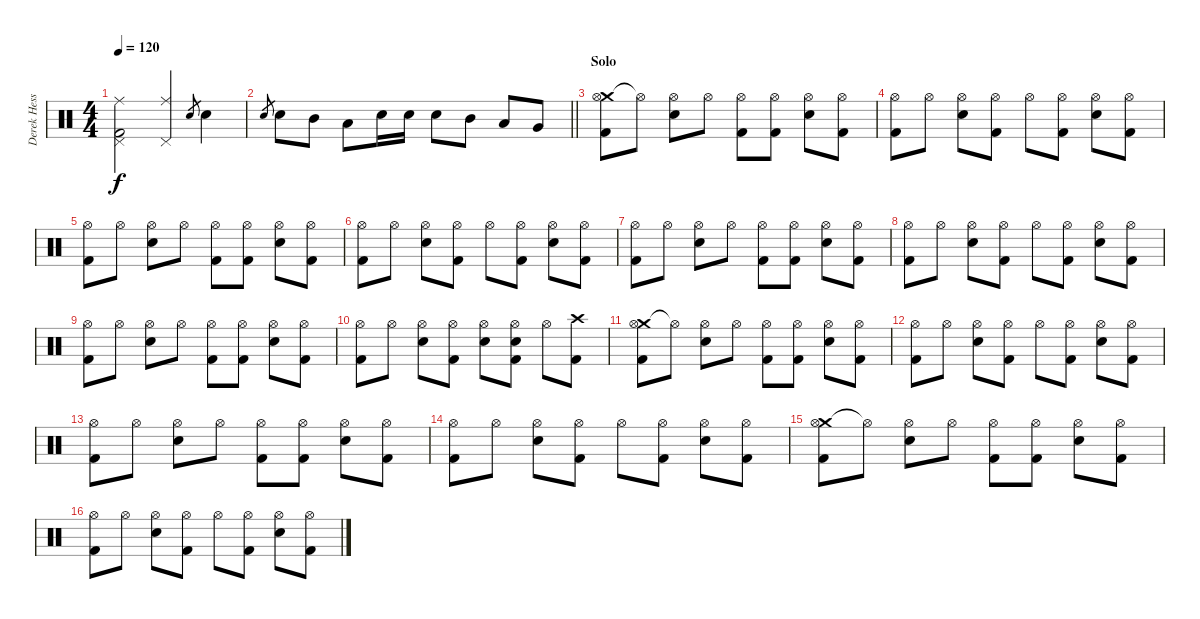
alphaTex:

\track ("Derek Hess (Drums and Percussion)" "Derek Hess") {instrument percussion}
\staff {score}
\articulation defaults
\ts (4 4)
\tempo 120
\clef neutral
\ks c
("Ride (middle)" "Pedal Hi-Hat (hit)" "Kick (hit) 2").2{dy f} ("Ride (middle)" "Pedal Hi-Hat (hit)").4 "Snare (hit) 2".8{gr} "Snare (hit) 2".4 |
\barLineRight lightlight "Snare (hit) 2".8{gr} "Snare (hit) 2".8 "Mid Tom (hit)".8 "Low Tom (hit)".8 "Snare (hit) 2".16 "Snare (hit) 2".16 "Snare (hit) 2".8 "Mid Tom (hit)".8 "Low Tom (hit)".8 "Very Low Tom (hit)".8
|
\section ("" "Solo")
("Crash medium (hit)" "Hi-Hat (open)" "Kick (hit) 2").8 "Hi-Hat (open)"{t}.8 ("Hi-Hat (open)" "Snare (hit) 2").8 "Hi-Hat (open)".8 ("Hi-Hat (open)" "Kick (hit) 2").8 ("Hi-Hat (open)" "Kick (hit) 2").8 ("Hi-Hat (open)" "Snare (hit) 2").8 ("Hi-Hat (open)" "Kick (hit) 2").8 |
("Hi-Hat (open)" "Kick (hit) 2").8 "Hi-Hat (open)".8 ("Hi-Hat (open)" "Snare (hit) 2").8 ("Hi-Hat (open)" "Kick (hit) 2").8 "Hi-Hat (open)".8 ("Hi-Hat (open)" "Kick (hit) 2").8 ("Hi-Hat (open)" "Snare (hit) 2").8 ("Hi-Hat (open)" "Kick (hit) 2").8 |
("Hi-Hat (open)" "Kick (hit) 2").8 "Hi-Hat (open)".8 ("Hi-Hat (open)" "Snare (hit) 2").8 "Hi-Hat (open)".8 ("Hi-Hat (open)" "Kick (hit) 2").8 ("Hi-Hat (open)" "Kick (hit) 2").8 ("Hi-Hat (open)" "Snare (hit) 2").8 ("Hi-Hat (open)" "Kick (hit) 2").8 |
("Hi-Hat (open)" "Kick (hit) 2").8 "Hi-Hat (open)".8 ("Hi-Hat (open)" "Snare (hit) 2").8 ("Hi-Hat (open)" "Kick (hit) 2").8 "Hi-Hat (open)".8 ("Hi-Hat (open)" "Kick (hit) 2").8 ("Hi-Hat (open)" "Snare (hit) 2").8 ("Hi-Hat (open)" "Kick (hit) 2").8 |
("Hi-Hat (open)" "Kick (hit) 2").8 "Hi-Hat (open)".8 ("Hi-Hat (open)" "Snare (hit) 2").8 "Hi-Hat (open)".8 ("Hi-Hat (open)" "Kick (hit) 2").8 ("Hi-Hat (open)" "Kick (hit) 2").8 ("Hi-Hat (open)" "Snare (hit) 2").8 ("Hi-Hat (open)" "Kick (hit) 2").8 |
("Hi-Hat (open)" "Kick (hit) 2").8 "Hi-Hat (open)".8 ("Hi-Hat (open)" "Snare (hit) 2").8 ("Hi-Hat (open)" "Kick (hit) 2").8 "Hi-Hat (open)".8 ("Hi-Hat (open)" "Kick (hit) 2").8 ("Hi-Hat (open)" "Snare (hit) 2").8 ("Hi-Hat (open)" "Kick (hit) 2").8 |
("Hi-Hat (open)" "Kick (hit) 2").8 "Hi-Hat (open)".8 ("Hi-Hat (open)" "Snare (hit) 2").8 "Hi-Hat (open)".8 ("Hi-Hat (open)" "Kick (hit) 2").8 ("Hi-Hat (open)" "Kick (hit) 2").8 ("Hi-Hat (open)" "Snare (hit) 2").8 ("Hi-Hat (open)" "Kick (hit) 2").8 |
("Hi-Hat (open)" "Kick (hit) 2").8 "Hi-Hat (open)".8 ("Hi-Hat (open)" "Snare (hit) 2").8 ("Hi-Hat (open)" "Kick (hit) 2").8 ("Hi-Hat (open)" "Snare (hit) 2").8 ("Hi-Hat (open)" "Snare (hit) 2" "Kick (hit) 2").8 "Hi-Hat (open)".8 ("Crash high (hit)" "Kick (hit) 2").8 |
("Crash medium (hit)" "Hi-Hat (open)" "Kick (hit) 2").8 "Hi-Hat (open)"{t}.8 ("Hi-Hat (open)" "Snare (hit) 2").8 "Hi-Hat (open)".8 ("Hi-Hat (open)" "Kick (hit) 2").8 ("Hi-Hat (open)" "Kick (hit) 2").8 ("Hi-Hat (open)" "Snare (hit) 2").8 ("Hi-Hat (open)" "Kick (hit) 2").8 |
("Hi-Hat (open)" "Kick (hit) 2").8 "Hi-Hat (open)".8 ("Hi-Hat (open)" "Snare (hit) 2").8 ("Hi-Hat (open)" "Kick (hit) 2").8 "Hi-Hat (open)".8 ("Hi-Hat (open)" "Kick (hit) 2").8 ("Hi-Hat (open)" "Snare (hit) 2").8 ("Hi-Hat (open)" "Kick (hit) 2").8 |
("Hi-Hat (open)" "Kick (hit) 2").8 "Hi-Hat (open)".8 ("Hi-Hat (open)" "Snare (hit) 2").8 "Hi-Hat (open)".8 ("Hi-Hat (open)" "Kick (hit) 2").8 ("Hi-Hat (open)" "Kick (hit) 2").8 ("Hi-Hat (open)" "Snare (hit) 2").8 ("Hi-Hat (open)" "Kick (hit) 2").8 |
("Hi-Hat (open)" "Kick (hit) 2").8 "Hi-Hat (open)".8 ("Hi-Hat (open)" "Snare (hit) 2").8 ("Hi-Hat (open)" "Kick (hit) 2").8 "Hi-Hat (open)".8 ("Hi-Hat (open)" "Kick (hit) 2").8 ("Hi-Hat (open)" "Snare (hit) 2").8 ("Hi-Hat (open)" "Kick (hit) 2").8 |
("Crash medium (hit)" "Hi-Hat (open)" "Kick (hit) 2").8 "Hi-Hat (open)"{t}.8 ("Hi-Hat (open)" "Snare (hit) 2").8 "Hi-Hat (open)".8 ("Hi-Hat (open)" "Kick (hit) 2").8 ("Hi-Hat (open)" "Kick (hit) 2").8 ("Hi-Hat (open)" "Snare (hit) 2").8 ("Hi-Hat (open)" "Kick (hit) 2").8 |
("Hi-Hat (open)" "Kick (hit) 2").8 "Hi-Hat (open)".8 ("Hi-Hat (open)" "Snare (hit) 2").8 ("Hi-Hat (open)" "Kick (hit) 2").8 "Hi-Hat (open)".8 ("Hi-Hat (open)" "Kick (hit) 2").8 ("Hi-Hat (open)" "Snare (hit) 2").8 ("Hi-Hat (open)" "Kick (hit) 2").8
